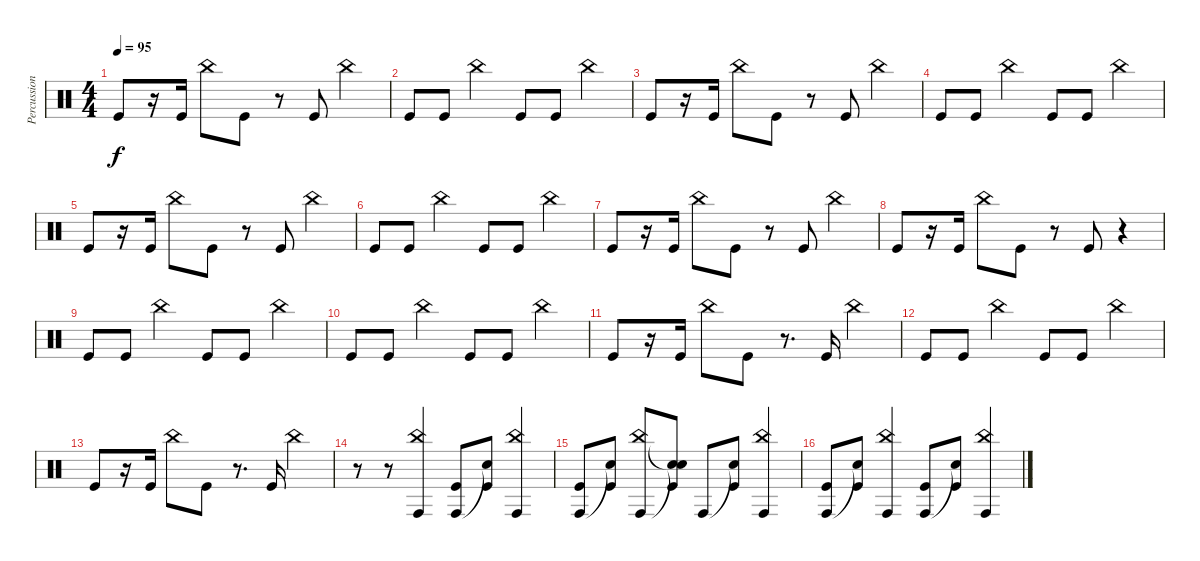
\track ("Percussion" "Percussion") {instrument percussion}
\staff {score}
\articulation defaults
\ts (4 4)
\tempo 95
\clef neutral
\ks c "Kick (hit)".8{dy f}
r.16 "Kick (hit)".16 "China (hit)".8 "Kick (hit)".8 r.8 "Kick (hit)".8 "China (hit)".4 |
"Kick (hit)".8 "Kick (hit)".8 "China (hit)".4 "Kick (hit)".8 "Kick (hit)".8 "China (hit)".4 |
"Kick (hit)".8 r.16 "Kick (hit)".16 "China (hit)".8 "Kick (hit)".8 r.8 "Kick (hit)".8 "China (hit)".4 |
"Kick (hit)".8 "Kick (hit)".8 "China (hit)".4 "Kick (hit)".8 "Kick (hit)".8 "China (hit)".4 |
"Kick (hit)".8 r.16 "Kick (hit)".16 "China (hit)".8 "Kick (hit)".8 r.8 "Kick (hit)".8 "China (hit)".4 |
"Kick (hit)".8 "Kick (hit)".8 "China (hit)".4 "Kick (hit)".8 "Kick (hit)".8 "China (hit)".4 |
"Kick (hit)".8 r.16 "Kick (hit)".16 "China (hit)".8 "Kick (hit)".8 r.8 "Kick (hit)".8 "China (hit)".4 |
"Kick (hit)".8 r.16 "Kick (hit)".16 "China (hit)".8 "Kick (hit)".8 r.8 "Kick (hit)".8 r.4 |
"Kick (hit)".8 "Kick (hit)".8 "China (hit)".4 "Kick (hit)".8 "Kick (hit)".8 "China (hit)".4 |
"Kick (hit)".8 "Kick (hit)".8 "China (hit)".4 "Kick (hit)".8 "Kick (hit)".8 "China (hit)".4 |
"Kick (hit)".8 r.16 "Kick (hit)".16 "China (hit)".8 "Kick (hit)".8 r.8{d} "Kick (hit)".16 "China (hit)".4 |
"Kick (hit)".8 "Kick (hit)".8 "China (hit)".4 "Kick (hit)".8 "Kick (hit)".8 "China (hit)".4 |
"Kick (hit)".8 r.16 "Kick (hit)".16 "China (hit)".8 "Kick (hit)".8 r.8{d} "Kick (hit)".16 "China (hit)".4 |
r.8 r.8 ("China (hit)" "Conga high (hit)").4 ("Conga high (hit)" "Kick (hit)").8 ("Snare (hit)"{t} "Kick (hit)").8 ("China (hit)" "Conga high (hit)").4 |
("Conga high (hit)" "Kick (hit)").8 ("Snare (hit)"{t} "Kick (hit)").8 ("China (hit)" "Conga high (hit)").8 ("Snare (hit)"{t} "Snare (hit)"{t} "Kick (hit)").8 "Conga high (hit)".8 ("Snare (hit)"{t} "Kick (hit)").8 ("China (hit)" "Conga high (hit)").4 |
("Conga high (hit)" "Kick (hit)").8 ("Snare (hit)"{t} "Kick (hit)").8 ("China (hit)" "Conga high (hit)").4 ("Conga high (hit)" "Kick (hit)").8 ("Snare (hit)"{t} "Kick (hit)").8 ("China (hit)" "Conga high (hit)").4
